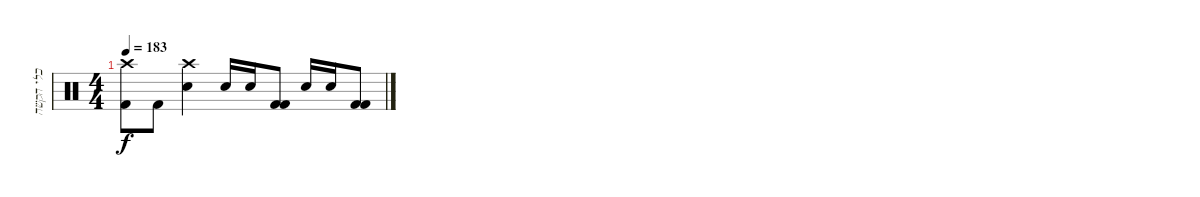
\track ("כלי הקשה" "כלי הקשה") {instrument percussion}
\staff {score}
\articulation defaults
\ts (4 4)
\tempo 183
\clef neutral
\ks c
("Crash high (hit)" "Kick (hit) 2").8{dy f} "Kick (hit) 2".8 ("Crash high (hit)" "Snare (hit) 2").4 "Snare (hit) 2".16 "Snare (hit) 2".16 ("Kick (hit) 2" "Kick (hit) 2").8 "Snare (hit) 2".16 "Snare (hit) 2".16 ("Kick (hit) 2" "Kick (hit) 2").8
